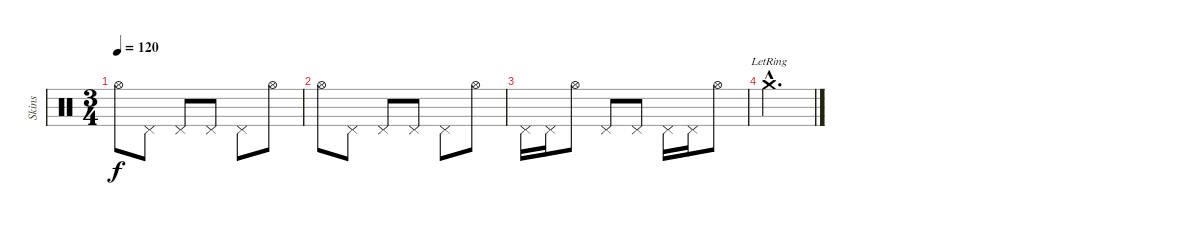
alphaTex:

\track ("Skins" "Skins") {instrument percussion}
\staff {score}
\articulation defaults
\ts (3 4)
\tempo 120
\clef neutral
\ks c "Hi-Hat (open)".8{dy f} "Pedal Hi-Hat (hit)".8 "Pedal Hi-Hat (hit)".8 "Pedal Hi-Hat (hit)".8 "Pedal Hi-Hat (hit)".8 "Hi-Hat (open)".8
|
"Hi-Hat (open)".8 "Pedal Hi-Hat (hit)".8 "Pedal Hi-Hat (hit)".8 "Pedal Hi-Hat (hit)".8 "Pedal Hi-Hat (hit)".8 "Hi-Hat (open)".8 |
"Pedal Hi-Hat (hit)".16 "Pedal Hi-Hat (hit)".16 "Hi-Hat (open)".8 "Pedal Hi-Hat (hit)".8 "Pedal Hi-Hat (hit)".8 "Pedal Hi-Hat (hit)".16 "Pedal Hi-Hat (hit)".16 "Hi-Hat (open)".8 |
"Crash medium (hit)"{hac lr}.2{d}
